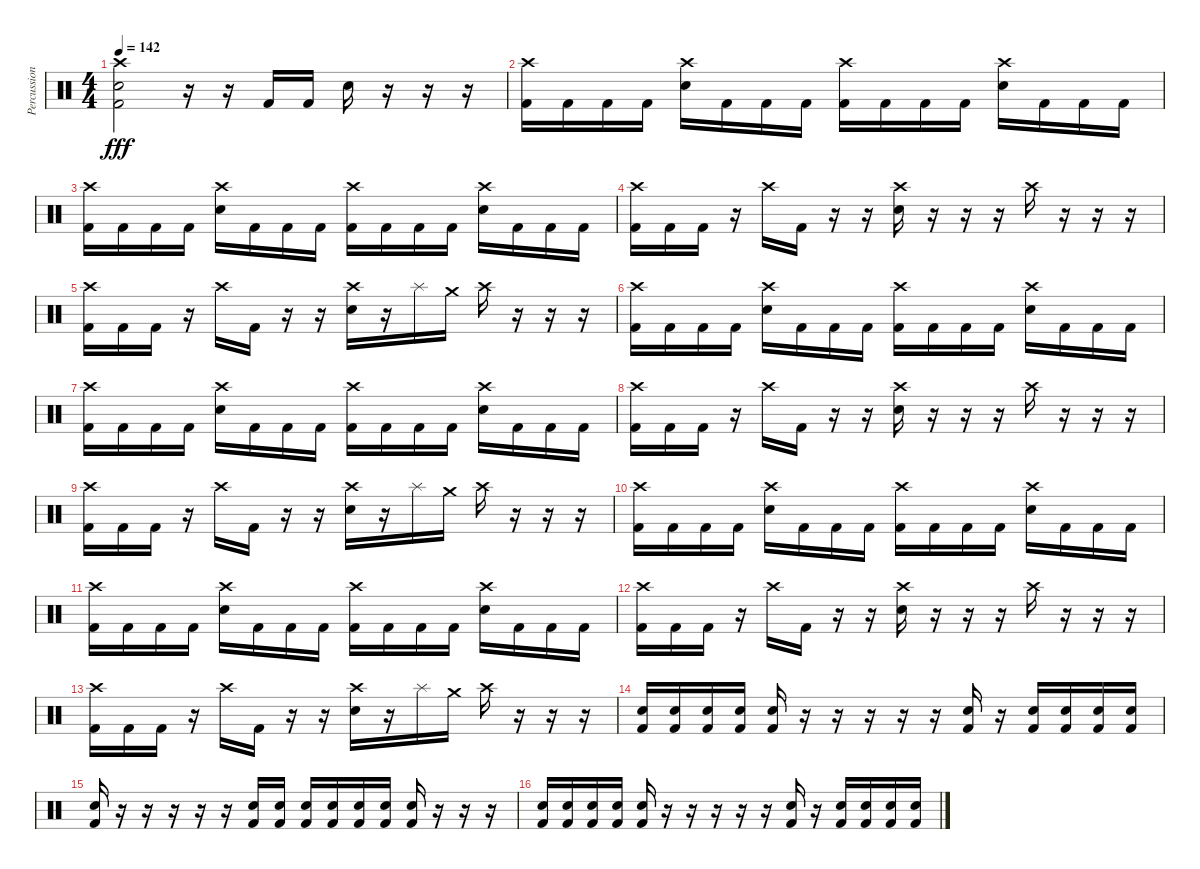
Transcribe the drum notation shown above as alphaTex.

\track ("Percussion" "Percussion") {instrument percussion}
\staff {score}
\articulation defaults
\ts (4 4)
\tempo 142
\clef neutral
\ks c
("Crash high (hit)" "Electric Snare (hit)" "Kick (hit) 2").2{dy fff} r.16 r.16 "Kick (hit) 2".16 "Kick (hit) 2".16 "Electric Snare (hit)".16 r.16 r.16 r.16 |
("Crash high (hit)" "Kick (hit) 2").16 "Kick (hit) 2".16 "Kick (hit) 2".16 "Kick (hit) 2".16 ("Crash high (hit)" "Electric Snare (hit)").16 "Kick (hit) 2".16 "Kick (hit) 2".16 "Kick (hit) 2".16 ("Crash high (hit)" "Kick (hit) 2").16 "Kick (hit) 2".16 "Kick (hit) 2".16 "Kick (hit) 2".16 ("Crash high (hit)" "Electric Snare (hit)").16 "Kick (hit) 2".16 "Kick (hit) 2".16 "Kick (hit) 2".16 |
("Crash high (hit)" "Kick (hit) 2").16 "Kick (hit) 2".16 "Kick (hit) 2".16 "Kick (hit) 2".16 ("Crash high (hit)" "Electric Snare (hit)").16 "Kick (hit) 2".16 "Kick (hit) 2".16 "Kick (hit) 2".16 ("Crash high (hit)" "Kick (hit) 2").16 "Kick (hit) 2".16 "Kick (hit) 2".16 "Kick (hit) 2".16 ("Crash high (hit)" "Electric Snare (hit)").16 "Kick (hit) 2".16 "Kick (hit) 2".16 "Kick (hit) 2".16 |
("Crash high (hit)" "Kick (hit) 2").16 "Kick (hit) 2".16 "Kick (hit) 2".16 r.16 "Crash high (hit)".16 "Kick (hit) 2".16 r.16 r.16 ("Crash high (hit)" "Electric Snare (hit)").16 r.16 r.16 r.16 "Crash high (hit)".16 r.16 r.16 r.16 |
("Crash high (hit)" "Kick (hit) 2").16 "Kick (hit) 2".16 "Kick (hit) 2".16 r.16 "Crash high (hit)".16 "Kick (hit) 2".16 r.16 r.16 ("Crash high (hit)" "Electric Snare (hit)").16 r.16 "Splash (hit)".16 "Crash medium (hit)".16 "Crash high (hit)".16 r.16 r.16 r.16 |
("Crash high (hit)" "Kick (hit) 2").16 "Kick (hit) 2".16 "Kick (hit) 2".16 "Kick (hit) 2".16 ("Crash high (hit)" "Electric Snare (hit)").16 "Kick (hit) 2".16 "Kick (hit) 2".16 "Kick (hit) 2".16 ("Crash high (hit)" "Kick (hit) 2").16 "Kick (hit) 2".16 "Kick (hit) 2".16 "Kick (hit) 2".16 ("Crash high (hit)" "Electric Snare (hit)").16 "Kick (hit) 2".16 "Kick (hit) 2".16 "Kick (hit) 2".16 |
("Crash high (hit)" "Kick (hit) 2").16 "Kick (hit) 2".16 "Kick (hit) 2".16 "Kick (hit) 2".16 ("Crash high (hit)" "Electric Snare (hit)").16 "Kick (hit) 2".16 "Kick (hit) 2".16 "Kick (hit) 2".16 ("Crash high (hit)" "Kick (hit) 2").16 "Kick (hit) 2".16 "Kick (hit) 2".16 "Kick (hit) 2".16 ("Crash high (hit)" "Electric Snare (hit)").16 "Kick (hit) 2".16 "Kick (hit) 2".16 "Kick (hit) 2".16 |
("Crash high (hit)" "Kick (hit) 2").16 "Kick (hit) 2".16 "Kick (hit) 2".16 r.16 "Crash high (hit)".16 "Kick (hit) 2".16 r.16 r.16 ("Crash high (hit)" "Electric Snare (hit)").16 r.16 r.16 r.16 "Crash high (hit)".16 r.16 r.16 r.16 |
("Crash high (hit)" "Kick (hit) 2").16 "Kick (hit) 2".16 "Kick (hit) 2".16 r.16 "Crash high (hit)".16 "Kick (hit) 2".16 r.16 r.16 ("Crash high (hit)" "Electric Snare (hit)").16 r.16 "Splash (hit)".16 "Crash medium (hit)".16 "Crash high (hit)".16 r.16 r.16 r.16 |
("Crash high (hit)" "Kick (hit) 2").16 "Kick (hit) 2".16 "Kick (hit) 2".16 "Kick (hit) 2".16 ("Crash high (hit)" "Electric Snare (hit)").16 "Kick (hit) 2".16 "Kick (hit) 2".16 "Kick (hit) 2".16 ("Crash high (hit)" "Kick (hit) 2").16 "Kick (hit) 2".16 "Kick (hit) 2".16 "Kick (hit) 2".16 ("Crash high (hit)" "Electric Snare (hit)").16 "Kick (hit) 2".16 "Kick (hit) 2".16 "Kick (hit) 2".16 |
("Crash high (hit)" "Kick (hit) 2").16 "Kick (hit) 2".16 "Kick (hit) 2".16 "Kick (hit) 2".16 ("Crash high (hit)" "Electric Snare (hit)").16 "Kick (hit) 2".16 "Kick (hit) 2".16 "Kick (hit) 2".16 ("Crash high (hit)" "Kick (hit) 2").16 "Kick (hit) 2".16 "Kick (hit) 2".16 "Kick (hit) 2".16 ("Crash high (hit)" "Electric Snare (hit)").16 "Kick (hit) 2".16 "Kick (hit) 2".16 "Kick (hit) 2".16 |
("Crash high (hit)" "Kick (hit) 2").16 "Kick (hit) 2".16 "Kick (hit) 2".16 r.16 "Crash high (hit)".16 "Kick (hit) 2".16 r.16 r.16 ("Crash high (hit)" "Electric Snare (hit)").16 r.16 r.16 r.16 "Crash high (hit)".16 r.16 r.16 r.16 |
("Crash high (hit)" "Kick (hit) 2").16 "Kick (hit) 2".16 "Kick (hit) 2".16 r.16 "Crash high (hit)".16 "Kick (hit) 2".16 r.16 r.16 ("Crash high (hit)" "Electric Snare (hit)").16 r.16 "Splash (hit)".16 "Crash medium (hit)".16 "Crash high (hit)".16 r.16 r.16 r.16 |
("Electric Snare (hit)" "Kick (hit) 2").16 ("Electric Snare (hit)" "Kick (hit) 2").16 ("Electric Snare (hit)" "Kick (hit) 2").16 ("Electric Snare (hit)" "Kick (hit) 2").16 ("Electric Snare (hit)" "Kick (hit) 2").16 r.16 r.16 r.16 r.16 r.16 ("Electric Snare (hit)" "Kick (hit) 2").16 r.16 ("Electric Snare (hit)" "Kick (hit) 2").16 ("Electric Snare (hit)" "Kick (hit) 2").16 ("Electric Snare (hit)" "Kick (hit) 2").16 ("Electric Snare (hit)" "Kick (hit) 2").16 |
("Electric Snare (hit)" "Kick (hit) 2").16 r.16 r.16 r.16 r.16 r.16 ("Electric Snare (hit)" "Kick (hit) 2").16 ("Electric Snare (hit)" "Kick (hit) 2").16 ("Electric Snare (hit)" "Kick (hit) 2").16 ("Electric Snare (hit)" "Kick (hit) 2").16 ("Electric Snare (hit)" "Kick (hit) 2").16 ("Electric Snare (hit)" "Kick (hit) 2").16 ("Electric Snare (hit)" "Kick (hit) 2").16 r.16 r.16 r.16 |
("Electric Snare (hit)" "Kick (hit) 2").16 ("Electric Snare (hit)" "Kick (hit) 2").16 ("Electric Snare (hit)" "Kick (hit) 2").16 ("Electric Snare (hit)" "Kick (hit) 2").16 ("Electric Snare (hit)" "Kick (hit) 2").16 r.16 r.16 r.16 r.16 r.16 ("Electric Snare (hit)" "Kick (hit) 2").16 r.16 ("Electric Snare (hit)" "Kick (hit) 2").16 ("Electric Snare (hit)" "Kick (hit) 2").16 ("Electric Snare (hit)" "Kick (hit) 2").16 ("Electric Snare (hit)" "Kick (hit) 2").16
